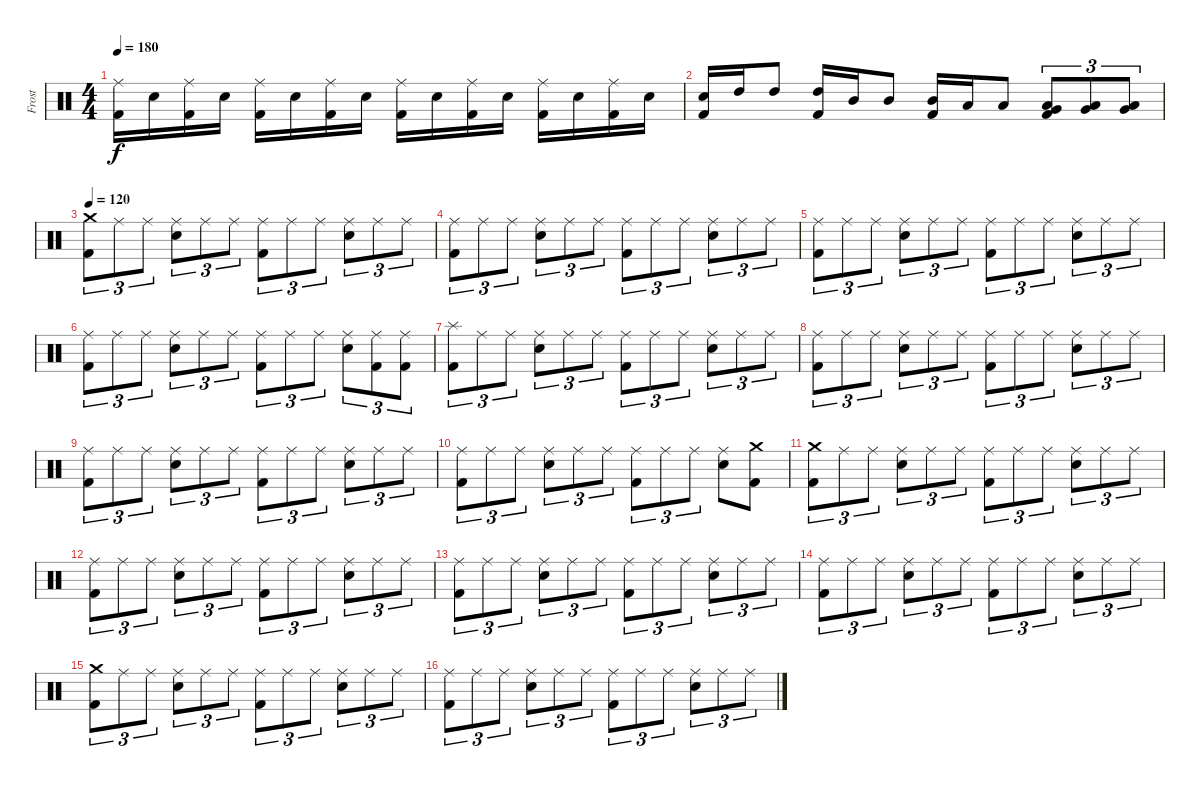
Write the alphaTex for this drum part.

\track ("Frost" "Frost") {instrument percussion}
\staff {score}
\articulation defaults
\ts (4 4)
\tempo 180
\clef neutral
\ks c
("Ride (middle)" "Kick (hit) 2").16{dy f} "Electric Snare (hit)".16 ("Ride (middle)" "Kick (hit) 2").16 "Electric Snare (hit)".16 ("Ride (middle)" "Kick (hit) 2").16 "Electric Snare (hit)".16 ("Ride (middle)" "Kick (hit) 2").16 "Electric Snare (hit)".16 ("Ride (middle)" "Kick (hit) 2").16 "Electric Snare (hit)".16 ("Ride (middle)" "Kick (hit) 2").16 "Electric Snare (hit)".16 ("Ride (middle)" "Kick (hit) 2").16 "Electric Snare (hit)".16 ("Ride (middle)" "Kick (hit) 2").16 "Electric Snare (hit)".16 |
("Electric Snare (hit)" "Kick (hit) 2").16 "High Tom (hit)".16 "High Tom (hit)".8 ("High Tom (hit)" "Kick (hit) 2").16 "Mid Tom (hit)".16 "Mid Tom (hit)".8 ("Mid Tom (hit)" "Kick (hit) 2").16 "Low Tom (hit)".16 "Low Tom (hit)".8 ("Low Floor Tom (hit)" "Very Low Tom (hit)" "Kick (hit) 2").8{tu (3 2)} ("Low Floor Tom (hit)" "Very Low Tom (hit)").8{tu (3 2)} ("Low Floor Tom (hit)" "Very Low Tom (hit)").8{tu (3 2)} |
\tempo 120
("Crash medium (hit)" "Kick (hit) 2").8{tu (3 2)} "Ride (middle)".8{tu (3 2)} "Ride (middle)".8{tu (3 2)} ("Ride (middle)" "Electric Snare (hit)").8{tu (3 2)} "Ride (middle)".8{tu (3 2)} "Ride (middle)".8{tu (3 2)} ("Ride (middle)" "Kick (hit) 2").8{tu (3 2)} "Ride (middle)".8{tu (3 2)} "Ride (middle)".8{tu (3 2)} ("Ride (middle)" "Electric Snare (hit)").8{tu (3 2)} "Ride (middle)".8{tu (3 2)} "Ride (middle)".8{tu (3 2)} |
("Ride (middle)" "Kick (hit) 2").8{tu (3 2)} "Ride (middle)".8{tu (3 2)} "Ride (middle)".8{tu (3 2)} ("Ride (middle)" "Electric Snare (hit)").8{tu (3 2)} "Ride (middle)".8{tu (3 2)} "Ride (middle)".8{tu (3 2)} ("Ride (middle)" "Kick (hit) 2").8{tu (3 2)} "Ride (middle)".8{tu (3 2)} "Ride (middle)".8{tu (3 2)} ("Ride (middle)" "Electric Snare (hit)").8{tu (3 2)} "Ride (middle)".8{tu (3 2)} "Ride (middle)".8{tu (3 2)} |
("Ride (middle)" "Kick (hit) 2").8{tu (3 2)} "Ride (middle)".8{tu (3 2)} "Ride (middle)".8{tu (3 2)} ("Ride (middle)" "Electric Snare (hit)").8{tu (3 2)} "Ride (middle)".8{tu (3 2)} "Ride (middle)".8{tu (3 2)} ("Ride (middle)" "Kick (hit) 2").8{tu (3 2)} "Ride (middle)".8{tu (3 2)} "Ride (middle)".8{tu (3 2)} ("Ride (middle)" "Electric Snare (hit)").8{tu (3 2)} "Ride (middle)".8{tu (3 2)} "Ride (middle)".8{tu (3 2)} |
("Ride (middle)" "Kick (hit) 2").8{tu (3 2)} "Ride (middle)".8{tu (3 2)} "Ride (middle)".8{tu (3 2)} ("Ride (middle)" "Electric Snare (hit)").8{tu (3 2)} "Ride (middle)".8{tu (3 2)} "Ride (middle)".8{tu (3 2)} ("Ride (middle)" "Kick (hit) 2").8{tu (3 2)} "Ride (middle)".8{tu (3 2)} "Ride (middle)".8{tu (3 2)} ("Ride (middle)" "Electric Snare (hit)").8{tu (3 2)} ("Ride (middle)" "Kick (hit) 2").8{tu (3 2)} ("Ride (middle)" "Kick (hit) 2").8{tu (3 2)} |
("Splash (hit)" "Kick (hit) 2").8{tu (3 2)} "Ride (middle)".8{tu (3 2)} "Ride (middle)".8{tu (3 2)} ("Ride (middle)" "Electric Snare (hit)").8{tu (3 2)} "Ride (middle)".8{tu (3 2)} "Ride (middle)".8{tu (3 2)} ("Ride (middle)" "Kick (hit) 2").8{tu (3 2)} "Ride (middle)".8{tu (3 2)} "Ride (middle)".8{tu (3 2)} ("Ride (middle)" "Electric Snare (hit)").8{tu (3 2)} "Ride (middle)".8{tu (3 2)} "Ride (middle)".8{tu (3 2)} |
("Ride (middle)" "Kick (hit) 2").8{tu (3 2)} "Ride (middle)".8{tu (3 2)} "Ride (middle)".8{tu (3 2)} ("Ride (middle)" "Electric Snare (hit)").8{tu (3 2)} "Ride (middle)".8{tu (3 2)} "Ride (middle)".8{tu (3 2)} ("Ride (middle)" "Kick (hit) 2").8{tu (3 2)} "Ride (middle)".8{tu (3 2)} "Ride (middle)".8{tu (3 2)} ("Ride (middle)" "Electric Snare (hit)").8{tu (3 2)} "Ride (middle)".8{tu (3 2)} "Ride (middle)".8{tu (3 2)} |
("Ride (middle)" "Kick (hit) 2").8{tu (3 2)} "Ride (middle)".8{tu (3 2)} "Ride (middle)".8{tu (3 2)} ("Ride (middle)" "Electric Snare (hit)").8{tu (3 2)} "Ride (middle)".8{tu (3 2)} "Ride (middle)".8{tu (3 2)} ("Ride (middle)" "Kick (hit) 2").8{tu (3 2)} "Ride (middle)".8{tu (3 2)} "Ride (middle)".8{tu (3 2)} ("Ride (middle)" "Electric Snare (hit)").8{tu (3 2)} "Ride (middle)".8{tu (3 2)} "Ride (middle)".8{tu (3 2)} |
("Ride (middle)" "Kick (hit) 2").8{tu (3 2)} "Ride (middle)".8{tu (3 2)} "Ride (middle)".8{tu (3 2)} ("Ride (middle)" "Electric Snare (hit)").8{tu (3 2)} "Ride (middle)".8{tu (3 2)} "Ride (middle)".8{tu (3 2)} ("Ride (middle)" "Kick (hit) 2").8{tu (3 2)} "Ride (middle)".8{tu (3 2)} "Ride (middle)".8{tu (3 2)} ("Ride (middle)" "Electric Snare (hit)").8 ("Crash medium (hit)" "Kick (hit) 2").8 |
("Crash medium (hit)" "Kick (hit) 2").8{tu (3 2)} "Ride (middle)".8{tu (3 2)} "Ride (middle)".8{tu (3 2)} ("Ride (middle)" "Electric Snare (hit)").8{tu (3 2)} "Ride (middle)".8{tu (3 2)} "Ride (middle)".8{tu (3 2)} ("Ride (middle)" "Kick (hit) 2").8{tu (3 2)} "Ride (middle)".8{tu (3 2)} "Ride (middle)".8{tu (3 2)} ("Ride (middle)" "Electric Snare (hit)").8{tu (3 2)} "Ride (middle)".8{tu (3 2)} "Ride (middle)".8{tu (3 2)} |
("Ride (middle)" "Kick (hit) 2").8{tu (3 2)} "Ride (middle)".8{tu (3 2)} "Ride (middle)".8{tu (3 2)} ("Ride (middle)" "Electric Snare (hit)").8{tu (3 2)} "Ride (middle)".8{tu (3 2)} "Ride (middle)".8{tu (3 2)} ("Ride (middle)" "Kick (hit) 2").8{tu (3 2)} "Ride (middle)".8{tu (3 2)} "Ride (middle)".8{tu (3 2)} ("Ride (middle)" "Electric Snare (hit)").8{tu (3 2)} "Ride (middle)".8{tu (3 2)} "Ride (middle)".8{tu (3 2)} |
("Ride (middle)" "Kick (hit) 2").8{tu (3 2)} "Ride (middle)".8{tu (3 2)} "Ride (middle)".8{tu (3 2)} ("Ride (middle)" "Electric Snare (hit)").8{tu (3 2)} "Ride (middle)".8{tu (3 2)} "Ride (middle)".8{tu (3 2)} ("Ride (middle)" "Kick (hit) 2").8{tu (3 2)} "Ride (middle)".8{tu (3 2)} "Ride (middle)".8{tu (3 2)} ("Ride (middle)" "Electric Snare (hit)").8{tu (3 2)} "Ride (middle)".8{tu (3 2)} "Ride (middle)".8{tu (3 2)} |
("Ride (middle)" "Kick (hit) 2").8{tu (3 2)} "Ride (middle)".8{tu (3 2)} "Ride (middle)".8{tu (3 2)} ("Ride (middle)" "Electric Snare (hit)").8{tu (3 2)} "Ride (middle)".8{tu (3 2)} "Ride (middle)".8{tu (3 2)} ("Ride (middle)" "Kick (hit) 2").8{tu (3 2)} "Ride (middle)".8{tu (3 2)} "Ride (middle)".8{tu (3 2)} ("Ride (middle)" "Electric Snare (hit)").8{tu (3 2)} "Ride (middle)".8{tu (3 2)} "Ride (middle)".8{tu (3 2)} |
("Crash medium (hit)" "Kick (hit) 2").8{tu (3 2)} "Ride (middle)".8{tu (3 2)} "Ride (middle)".8{tu (3 2)} ("Ride (middle)" "Electric Snare (hit)").8{tu (3 2)} "Ride (middle)".8{tu (3 2)} "Ride (middle)".8{tu (3 2)} ("Ride (middle)" "Kick (hit) 2").8{tu (3 2)} "Ride (middle)".8{tu (3 2)} "Ride (middle)".8{tu (3 2)} ("Ride (middle)" "Electric Snare (hit)").8{tu (3 2)} "Ride (middle)".8{tu (3 2)} "Ride (middle)".8{tu (3 2)} |
("Ride (middle)" "Kick (hit) 2").8{tu (3 2)} "Ride (middle)".8{tu (3 2)} "Ride (middle)".8{tu (3 2)} ("Ride (middle)" "Electric Snare (hit)").8{tu (3 2)} "Ride (middle)".8{tu (3 2)} "Ride (middle)".8{tu (3 2)} ("Ride (middle)" "Kick (hit) 2").8{tu (3 2)} "Ride (middle)".8{tu (3 2)} "Ride (middle)".8{tu (3 2)} ("Ride (middle)" "Electric Snare (hit)").8{tu (3 2)} "Ride (middle)".8{tu (3 2)} "Ride (middle)".8{tu (3 2)}
